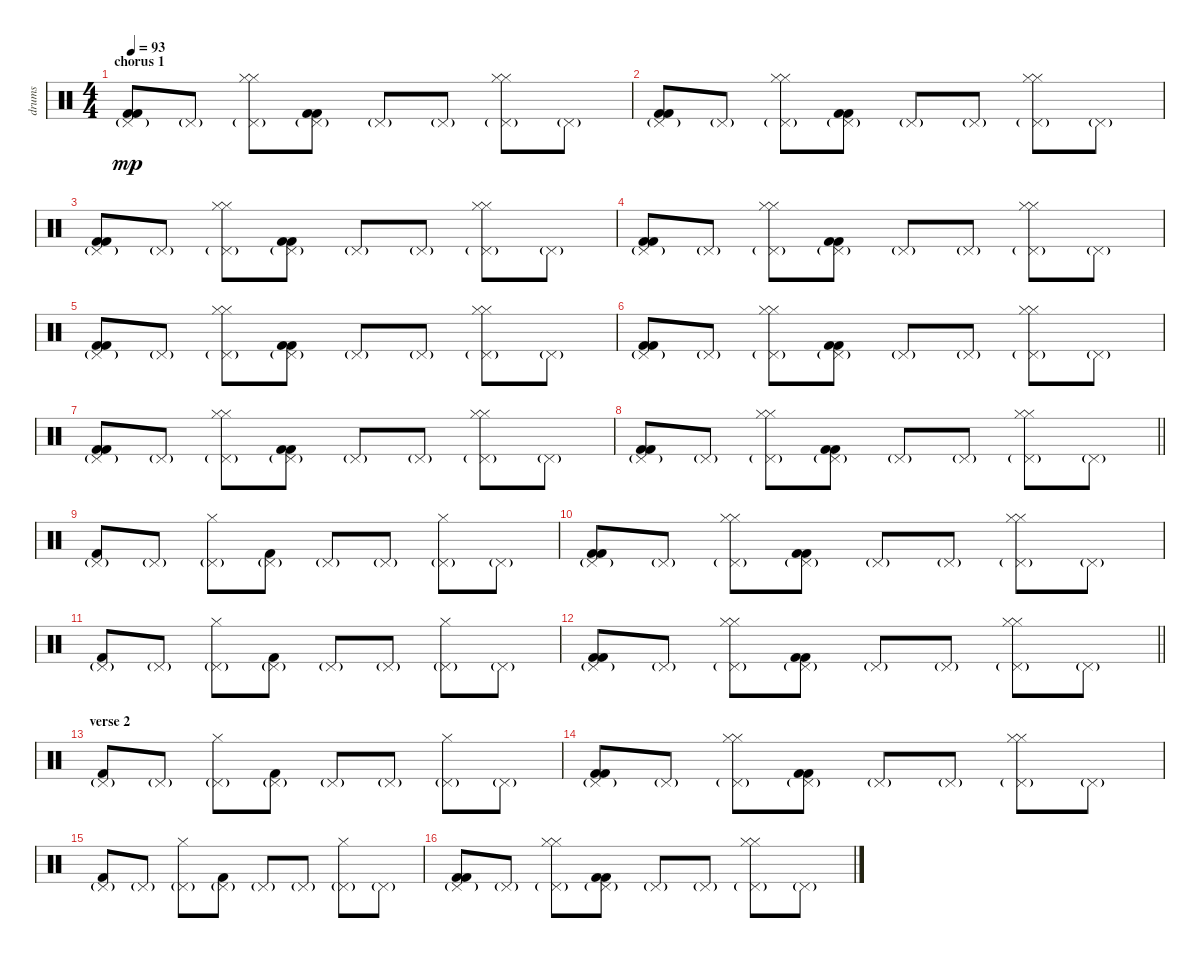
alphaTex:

\track ("drums" "drums") {instrument percussion}
\staff {score}
\articulation defaults
\ts (4 4)
\section ("" "chorus 1")
\tempo 93
\clef neutral
\ks c
("Kick (hit) 2" "Kick (hit) 2" "Pedal Hi-Hat (hit)"{g}).8{dy mp} "Pedal Hi-Hat (hit)"{g}.8 ("Hi-Hat (closed)" "Hi-Hat (closed)" "Pedal Hi-Hat (hit)"{g}).8 ("Kick (hit) 2" "Kick (hit) 2" "Pedal Hi-Hat (hit)"{g}).8 "Pedal Hi-Hat (hit)"{g}.8 "Pedal Hi-Hat (hit)"{g}.8 ("Hi-Hat (closed)" "Hi-Hat (closed)" "Pedal Hi-Hat (hit)"{g}).8 "Pedal Hi-Hat (hit)"{g}.8 |
("Kick (hit) 2" "Kick (hit) 2" "Pedal Hi-Hat (hit)"{g}).8 "Pedal Hi-Hat (hit)"{g}.8 ("Hi-Hat (closed)" "Hi-Hat (closed)" "Pedal Hi-Hat (hit)"{g}).8 ("Kick (hit) 2" "Kick (hit) 2" "Pedal Hi-Hat (hit)"{g}).8 "Pedal Hi-Hat (hit)"{g}.8 "Pedal Hi-Hat (hit)"{g}.8 ("Hi-Hat (closed)" "Hi-Hat (closed)" "Pedal Hi-Hat (hit)"{g}).8 "Pedal Hi-Hat (hit)"{g}.8 |
("Kick (hit) 2" "Kick (hit) 2" "Pedal Hi-Hat (hit)"{g}).8 "Pedal Hi-Hat (hit)"{g}.8 ("Hi-Hat (closed)" "Hi-Hat (closed)" "Pedal Hi-Hat (hit)"{g}).8 ("Kick (hit) 2" "Kick (hit) 2" "Pedal Hi-Hat (hit)"{g}).8 "Pedal Hi-Hat (hit)"{g}.8 "Pedal Hi-Hat (hit)"{g}.8 ("Hi-Hat (closed)" "Hi-Hat (closed)" "Pedal Hi-Hat (hit)"{g}).8 "Pedal Hi-Hat (hit)"{g}.8 |
("Kick (hit) 2" "Kick (hit) 2" "Pedal Hi-Hat (hit)"{g}).8 "Pedal Hi-Hat (hit)"{g}.8 ("Hi-Hat (closed)" "Hi-Hat (closed)" "Pedal Hi-Hat (hit)"{g}).8 ("Kick (hit) 2" "Kick (hit) 2" "Pedal Hi-Hat (hit)"{g}).8 "Pedal Hi-Hat (hit)"{g}.8 "Pedal Hi-Hat (hit)"{g}.8 ("Hi-Hat (closed)" "Hi-Hat (closed)" "Pedal Hi-Hat (hit)"{g}).8 "Pedal Hi-Hat (hit)"{g}.8 |
("Kick (hit) 2" "Kick (hit) 2" "Pedal Hi-Hat (hit)"{g}).8 "Pedal Hi-Hat (hit)"{g}.8 ("Hi-Hat (closed)" "Hi-Hat (closed)" "Pedal Hi-Hat (hit)"{g}).8 ("Kick (hit) 2" "Kick (hit) 2" "Pedal Hi-Hat (hit)"{g}).8 "Pedal Hi-Hat (hit)"{g}.8 "Pedal Hi-Hat (hit)"{g}.8 ("Hi-Hat (closed)" "Hi-Hat (closed)" "Pedal Hi-Hat (hit)"{g}).8 "Pedal Hi-Hat (hit)"{g}.8 |
("Kick (hit) 2" "Kick (hit) 2" "Pedal Hi-Hat (hit)"{g}).8 "Pedal Hi-Hat (hit)"{g}.8 ("Hi-Hat (closed)" "Hi-Hat (closed)" "Pedal Hi-Hat (hit)"{g}).8 ("Kick (hit) 2" "Kick (hit) 2" "Pedal Hi-Hat (hit)"{g}).8 "Pedal Hi-Hat (hit)"{g}.8 "Pedal Hi-Hat (hit)"{g}.8 ("Hi-Hat (closed)" "Hi-Hat (closed)" "Pedal Hi-Hat (hit)"{g}).8 "Pedal Hi-Hat (hit)"{g}.8 |
("Kick (hit) 2" "Kick (hit) 2" "Pedal Hi-Hat (hit)"{g}).8 "Pedal Hi-Hat (hit)"{g}.8 ("Hi-Hat (closed)" "Hi-Hat (closed)" "Pedal Hi-Hat (hit)"{g}).8 ("Kick (hit) 2" "Kick (hit) 2" "Pedal Hi-Hat (hit)"{g}).8 "Pedal Hi-Hat (hit)"{g}.8 "Pedal Hi-Hat (hit)"{g}.8 ("Hi-Hat (closed)" "Hi-Hat (closed)" "Pedal Hi-Hat (hit)"{g}).8 "Pedal Hi-Hat (hit)"{g}.8 |
\barLineRight lightlight
("Kick (hit) 2" "Kick (hit) 2" "Pedal Hi-Hat (hit)"{g}).8 "Pedal Hi-Hat (hit)"{g}.8 ("Hi-Hat (closed)" "Hi-Hat (closed)" "Pedal Hi-Hat (hit)"{g}).8 ("Kick (hit) 2" "Kick (hit) 2" "Pedal Hi-Hat (hit)"{g}).8 "Pedal Hi-Hat (hit)"{g}.8 "Pedal Hi-Hat (hit)"{g}.8 ("Hi-Hat (closed)" "Hi-Hat (closed)" "Pedal Hi-Hat (hit)"{g}).8 "Pedal Hi-Hat (hit)"{g}.8 |
("Kick (hit) 2" "Pedal Hi-Hat (hit)"{g}).8 "Pedal Hi-Hat (hit)"{g}.8 ("Hi-Hat (closed)" "Pedal Hi-Hat (hit)"{g}).8 ("Kick (hit) 2" "Pedal Hi-Hat (hit)"{g}).8 "Pedal Hi-Hat (hit)"{g}.8 "Pedal Hi-Hat (hit)"{g}.8 ("Hi-Hat (closed)" "Pedal Hi-Hat (hit)"{g}).8 "Pedal Hi-Hat (hit)"{g}.8 |
("Kick (hit) 2" "Kick (hit) 2" "Pedal Hi-Hat (hit)"{g}).8 "Pedal Hi-Hat (hit)"{g}.8 ("Hi-Hat (closed)" "Hi-Hat (closed)" "Pedal Hi-Hat (hit)"{g}).8 ("Kick (hit) 2" "Kick (hit) 2" "Pedal Hi-Hat (hit)"{g}).8 "Pedal Hi-Hat (hit)"{g}.8 "Pedal Hi-Hat (hit)"{g}.8 ("Hi-Hat (closed)" "Hi-Hat (closed)" "Pedal Hi-Hat (hit)"{g}).8 "Pedal Hi-Hat (hit)"{g}.8 |
("Kick (hit) 2" "Pedal Hi-Hat (hit)"{g}).8 "Pedal Hi-Hat (hit)"{g}.8 ("Hi-Hat (closed)" "Pedal Hi-Hat (hit)"{g}).8 ("Kick (hit) 2" "Pedal Hi-Hat (hit)"{g}).8 "Pedal Hi-Hat (hit)"{g}.8 "Pedal Hi-Hat (hit)"{g}.8 ("Hi-Hat (closed)" "Pedal Hi-Hat (hit)"{g}).8 "Pedal Hi-Hat (hit)"{g}.8 |
\barLineRight lightlight
("Kick (hit) 2" "Kick (hit) 2" "Pedal Hi-Hat (hit)"{g}).8 "Pedal Hi-Hat (hit)"{g}.8 ("Hi-Hat (closed)" "Hi-Hat (closed)" "Pedal Hi-Hat (hit)"{g}).8 ("Kick (hit) 2" "Kick (hit) 2" "Pedal Hi-Hat (hit)"{g}).8 "Pedal Hi-Hat (hit)"{g}.8 "Pedal Hi-Hat (hit)"{g}.8 ("Hi-Hat (closed)" "Hi-Hat (closed)" "Pedal Hi-Hat (hit)"{g}).8 "Pedal Hi-Hat (hit)"{g}.8 |
\section ("" "verse 2")
("Kick (hit) 2" "Pedal Hi-Hat (hit)"{g}).8 "Pedal Hi-Hat (hit)"{g}.8 ("Hi-Hat (closed)" "Pedal Hi-Hat (hit)"{g}).8 ("Kick (hit) 2" "Pedal Hi-Hat (hit)"{g}).8 "Pedal Hi-Hat (hit)"{g}.8 "Pedal Hi-Hat (hit)"{g}.8 ("Hi-Hat (closed)" "Pedal Hi-Hat (hit)"{g}).8 "Pedal Hi-Hat (hit)"{g}.8 |
("Kick (hit) 2" "Kick (hit) 2" "Pedal Hi-Hat (hit)"{g}).8 "Pedal Hi-Hat (hit)"{g}.8 ("Hi-Hat (closed)" "Hi-Hat (closed)" "Pedal Hi-Hat (hit)"{g}).8 ("Kick (hit) 2" "Kick (hit) 2" "Pedal Hi-Hat (hit)"{g}).8 "Pedal Hi-Hat (hit)"{g}.8 "Pedal Hi-Hat (hit)"{g}.8 ("Hi-Hat (closed)" "Hi-Hat (closed)" "Pedal Hi-Hat (hit)"{g}).8 "Pedal Hi-Hat (hit)"{g}.8 |
("Kick (hit) 2" "Pedal Hi-Hat (hit)"{g}).8 "Pedal Hi-Hat (hit)"{g}.8 ("Hi-Hat (closed)" "Pedal Hi-Hat (hit)"{g}).8 ("Kick (hit) 2" "Pedal Hi-Hat (hit)"{g}).8 "Pedal Hi-Hat (hit)"{g}.8 "Pedal Hi-Hat (hit)"{g}.8 ("Hi-Hat (closed)" "Pedal Hi-Hat (hit)"{g}).8 "Pedal Hi-Hat (hit)"{g}.8 |
("Kick (hit) 2" "Kick (hit) 2" "Pedal Hi-Hat (hit)"{g}).8 "Pedal Hi-Hat (hit)"{g}.8 ("Hi-Hat (closed)" "Hi-Hat (closed)" "Pedal Hi-Hat (hit)"{g}).8 ("Kick (hit) 2" "Kick (hit) 2" "Pedal Hi-Hat (hit)"{g}).8 "Pedal Hi-Hat (hit)"{g}.8 "Pedal Hi-Hat (hit)"{g}.8 ("Hi-Hat (closed)" "Hi-Hat (closed)" "Pedal Hi-Hat (hit)"{g}).8 "Pedal Hi-Hat (hit)"{g}.8
